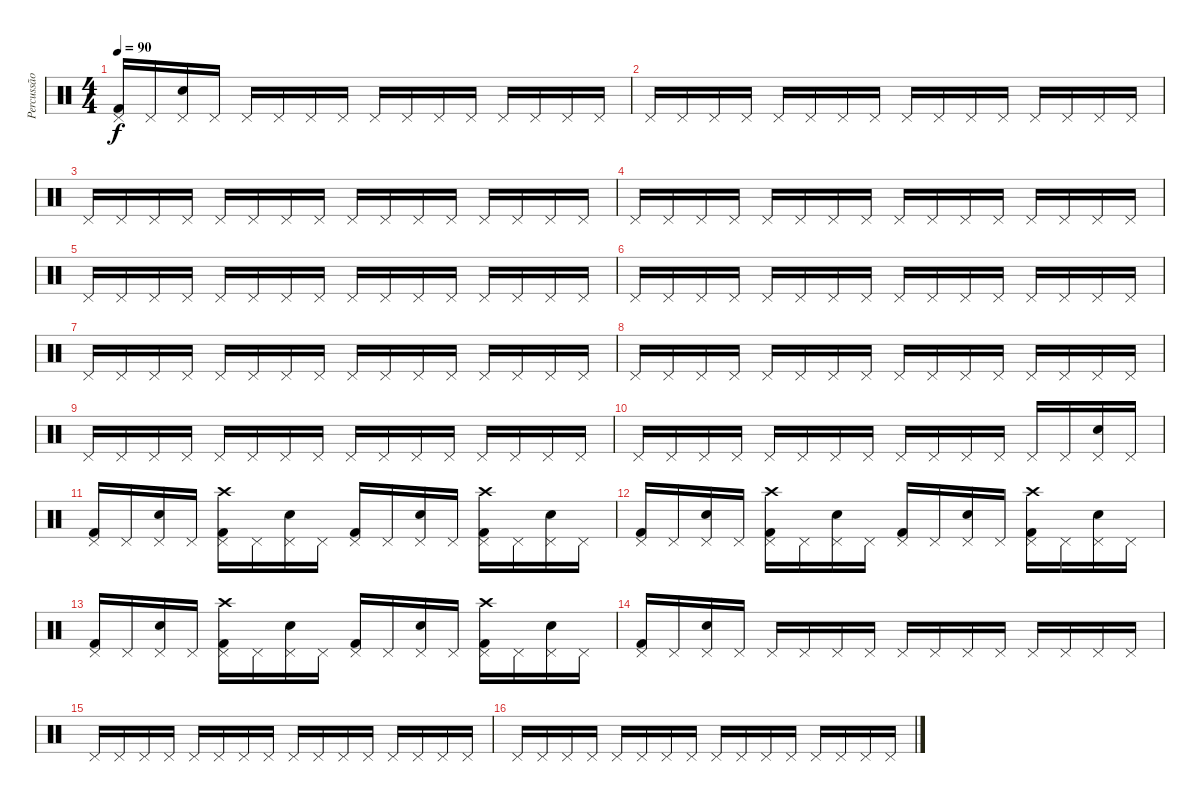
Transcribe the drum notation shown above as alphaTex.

\track ("Percussão" "Percussão") {instrument percussion}
\staff {score}
\articulation defaults
\ts (4 4)
\tempo 90
\clef neutral
\ks c
("Pedal Hi-Hat (hit)" "Kick (hit) 2").16{dy f} "Pedal Hi-Hat (hit)".16 ("Pedal Hi-Hat (hit)" "Electric Snare (hit)").16 "Pedal Hi-Hat (hit)".16 "Pedal Hi-Hat (hit)".16 "Pedal Hi-Hat (hit)".16 "Pedal Hi-Hat (hit)".16 "Pedal Hi-Hat (hit)".16 "Pedal Hi-Hat (hit)".16 "Pedal Hi-Hat (hit)".16 "Pedal Hi-Hat (hit)".16 "Pedal Hi-Hat (hit)".16 "Pedal Hi-Hat (hit)".16 "Pedal Hi-Hat (hit)".16 "Pedal Hi-Hat (hit)".16 "Pedal Hi-Hat (hit)".16 |
"Pedal Hi-Hat (hit)".16 "Pedal Hi-Hat (hit)".16 "Pedal Hi-Hat (hit)".16 "Pedal Hi-Hat (hit)".16 "Pedal Hi-Hat (hit)".16 "Pedal Hi-Hat (hit)".16 "Pedal Hi-Hat (hit)".16 "Pedal Hi-Hat (hit)".16 "Pedal Hi-Hat (hit)".16 "Pedal Hi-Hat (hit)".16 "Pedal Hi-Hat (hit)".16 "Pedal Hi-Hat (hit)".16 "Pedal Hi-Hat (hit)".16 "Pedal Hi-Hat (hit)".16 "Pedal Hi-Hat (hit)".16 "Pedal Hi-Hat (hit)".16 |
"Pedal Hi-Hat (hit)".16 "Pedal Hi-Hat (hit)".16 "Pedal Hi-Hat (hit)".16 "Pedal Hi-Hat (hit)".16 "Pedal Hi-Hat (hit)".16 "Pedal Hi-Hat (hit)".16 "Pedal Hi-Hat (hit)".16 "Pedal Hi-Hat (hit)".16 "Pedal Hi-Hat (hit)".16 "Pedal Hi-Hat (hit)".16 "Pedal Hi-Hat (hit)".16 "Pedal Hi-Hat (hit)".16 "Pedal Hi-Hat (hit)".16 "Pedal Hi-Hat (hit)".16 "Pedal Hi-Hat (hit)".16 "Pedal Hi-Hat (hit)".16 |
"Pedal Hi-Hat (hit)".16 "Pedal Hi-Hat (hit)".16 "Pedal Hi-Hat (hit)".16 "Pedal Hi-Hat (hit)".16 "Pedal Hi-Hat (hit)".16 "Pedal Hi-Hat (hit)".16 "Pedal Hi-Hat (hit)".16 "Pedal Hi-Hat (hit)".16 "Pedal Hi-Hat (hit)".16 "Pedal Hi-Hat (hit)".16 "Pedal Hi-Hat (hit)".16 "Pedal Hi-Hat (hit)".16 "Pedal Hi-Hat (hit)".16 "Pedal Hi-Hat (hit)".16 "Pedal Hi-Hat (hit)".16 "Pedal Hi-Hat (hit)".16 |
"Pedal Hi-Hat (hit)".16 "Pedal Hi-Hat (hit)".16 "Pedal Hi-Hat (hit)".16 "Pedal Hi-Hat (hit)".16 "Pedal Hi-Hat (hit)".16 "Pedal Hi-Hat (hit)".16 "Pedal Hi-Hat (hit)".16 "Pedal Hi-Hat (hit)".16 "Pedal Hi-Hat (hit)".16 "Pedal Hi-Hat (hit)".16 "Pedal Hi-Hat (hit)".16 "Pedal Hi-Hat (hit)".16 "Pedal Hi-Hat (hit)".16 "Pedal Hi-Hat (hit)".16 "Pedal Hi-Hat (hit)".16 "Pedal Hi-Hat (hit)".16 |
"Pedal Hi-Hat (hit)".16 "Pedal Hi-Hat (hit)".16 "Pedal Hi-Hat (hit)".16 "Pedal Hi-Hat (hit)".16 "Pedal Hi-Hat (hit)".16 "Pedal Hi-Hat (hit)".16 "Pedal Hi-Hat (hit)".16 "Pedal Hi-Hat (hit)".16 "Pedal Hi-Hat (hit)".16 "Pedal Hi-Hat (hit)".16 "Pedal Hi-Hat (hit)".16 "Pedal Hi-Hat (hit)".16 "Pedal Hi-Hat (hit)".16 "Pedal Hi-Hat (hit)".16 "Pedal Hi-Hat (hit)".16 "Pedal Hi-Hat (hit)".16 |
"Pedal Hi-Hat (hit)".16 "Pedal Hi-Hat (hit)".16 "Pedal Hi-Hat (hit)".16 "Pedal Hi-Hat (hit)".16 "Pedal Hi-Hat (hit)".16 "Pedal Hi-Hat (hit)".16 "Pedal Hi-Hat (hit)".16 "Pedal Hi-Hat (hit)".16 "Pedal Hi-Hat (hit)".16 "Pedal Hi-Hat (hit)".16 "Pedal Hi-Hat (hit)".16 "Pedal Hi-Hat (hit)".16 "Pedal Hi-Hat (hit)".16 "Pedal Hi-Hat (hit)".16 "Pedal Hi-Hat (hit)".16 "Pedal Hi-Hat (hit)".16 |
"Pedal Hi-Hat (hit)".16 "Pedal Hi-Hat (hit)".16 "Pedal Hi-Hat (hit)".16 "Pedal Hi-Hat (hit)".16 "Pedal Hi-Hat (hit)".16 "Pedal Hi-Hat (hit)".16 "Pedal Hi-Hat (hit)".16 "Pedal Hi-Hat (hit)".16 "Pedal Hi-Hat (hit)".16 "Pedal Hi-Hat (hit)".16 "Pedal Hi-Hat (hit)".16 "Pedal Hi-Hat (hit)".16 "Pedal Hi-Hat (hit)".16 "Pedal Hi-Hat (hit)".16 "Pedal Hi-Hat (hit)".16 "Pedal Hi-Hat (hit)".16 |
"Pedal Hi-Hat (hit)".16 "Pedal Hi-Hat (hit)".16 "Pedal Hi-Hat (hit)".16 "Pedal Hi-Hat (hit)".16 "Pedal Hi-Hat (hit)".16 "Pedal Hi-Hat (hit)".16 "Pedal Hi-Hat (hit)".16 "Pedal Hi-Hat (hit)".16 "Pedal Hi-Hat (hit)".16 "Pedal Hi-Hat (hit)".16 "Pedal Hi-Hat (hit)".16 "Pedal Hi-Hat (hit)".16 "Pedal Hi-Hat (hit)".16 "Pedal Hi-Hat (hit)".16 "Pedal Hi-Hat (hit)".16 "Pedal Hi-Hat (hit)".16 |
"Pedal Hi-Hat (hit)".16 "Pedal Hi-Hat (hit)".16 "Pedal Hi-Hat (hit)".16 "Pedal Hi-Hat (hit)".16 "Pedal Hi-Hat (hit)".16 "Pedal Hi-Hat (hit)".16 "Pedal Hi-Hat (hit)".16 "Pedal Hi-Hat (hit)".16 "Pedal Hi-Hat (hit)".16 "Pedal Hi-Hat (hit)".16 "Pedal Hi-Hat (hit)".16 "Pedal Hi-Hat (hit)".16 "Pedal Hi-Hat (hit)".16 "Pedal Hi-Hat (hit)".16 ("Pedal Hi-Hat (hit)" "Electric Snare (hit)").16 "Pedal Hi-Hat (hit)".16 |
("Pedal Hi-Hat (hit)" "Kick (hit) 2").16 "Pedal Hi-Hat (hit)".16 ("Pedal Hi-Hat (hit)" "Electric Snare (hit)").16 "Pedal Hi-Hat (hit)".16 ("Crash high (hit)" "Pedal Hi-Hat (hit)" "Kick (hit) 2").16 "Pedal Hi-Hat (hit)".16 ("Pedal Hi-Hat (hit)" "Electric Snare (hit)").16 "Pedal Hi-Hat (hit)".16 ("Pedal Hi-Hat (hit)" "Kick (hit) 2").16 "Pedal Hi-Hat (hit)".16 ("Pedal Hi-Hat (hit)" "Electric Snare (hit)").16 "Pedal Hi-Hat (hit)".16 ("Crash high (hit)" "Pedal Hi-Hat (hit)" "Kick (hit) 2").16 "Pedal Hi-Hat (hit)".16 ("Pedal Hi-Hat (hit)" "Electric Snare (hit)").16 "Pedal Hi-Hat (hit)".16 |
("Pedal Hi-Hat (hit)" "Kick (hit) 2").16 "Pedal Hi-Hat (hit)".16 ("Pedal Hi-Hat (hit)" "Electric Snare (hit)").16 "Pedal Hi-Hat (hit)".16 ("Crash high (hit)" "Pedal Hi-Hat (hit)" "Kick (hit) 2").16 "Pedal Hi-Hat (hit)".16 ("Pedal Hi-Hat (hit)" "Electric Snare (hit)").16 "Pedal Hi-Hat (hit)".16 ("Pedal Hi-Hat (hit)" "Kick (hit) 2").16 "Pedal Hi-Hat (hit)".16 ("Pedal Hi-Hat (hit)" "Electric Snare (hit)").16 "Pedal Hi-Hat (hit)".16 ("Crash high (hit)" "Pedal Hi-Hat (hit)" "Kick (hit) 2").16 "Pedal Hi-Hat (hit)".16 ("Pedal Hi-Hat (hit)" "Electric Snare (hit)").16 "Pedal Hi-Hat (hit)".16 |
("Pedal Hi-Hat (hit)" "Kick (hit) 2").16 "Pedal Hi-Hat (hit)".16 ("Pedal Hi-Hat (hit)" "Electric Snare (hit)").16 "Pedal Hi-Hat (hit)".16 ("Crash high (hit)" "Pedal Hi-Hat (hit)" "Kick (hit) 2").16 "Pedal Hi-Hat (hit)".16 ("Pedal Hi-Hat (hit)" "Electric Snare (hit)").16 "Pedal Hi-Hat (hit)".16 ("Pedal Hi-Hat (hit)" "Kick (hit) 2").16 "Pedal Hi-Hat (hit)".16 ("Pedal Hi-Hat (hit)" "Electric Snare (hit)").16 "Pedal Hi-Hat (hit)".16 ("Crash high (hit)" "Pedal Hi-Hat (hit)" "Kick (hit) 2").16 "Pedal Hi-Hat (hit)".16 ("Pedal Hi-Hat (hit)" "Electric Snare (hit)").16 "Pedal Hi-Hat (hit)".16 |
("Pedal Hi-Hat (hit)" "Kick (hit) 2").16 "Pedal Hi-Hat (hit)".16 ("Pedal Hi-Hat (hit)" "Electric Snare (hit)").16 "Pedal Hi-Hat (hit)".16 "Pedal Hi-Hat (hit)".16 "Pedal Hi-Hat (hit)".16 "Pedal Hi-Hat (hit)".16 "Pedal Hi-Hat (hit)".16 "Pedal Hi-Hat (hit)".16 "Pedal Hi-Hat (hit)".16 "Pedal Hi-Hat (hit)".16 "Pedal Hi-Hat (hit)".16 "Pedal Hi-Hat (hit)".16 "Pedal Hi-Hat (hit)".16 "Pedal Hi-Hat (hit)".16 "Pedal Hi-Hat (hit)".16 |
"Pedal Hi-Hat (hit)".16 "Pedal Hi-Hat (hit)".16 "Pedal Hi-Hat (hit)".16 "Pedal Hi-Hat (hit)".16 "Pedal Hi-Hat (hit)".16 "Pedal Hi-Hat (hit)".16 "Pedal Hi-Hat (hit)".16 "Pedal Hi-Hat (hit)".16 "Pedal Hi-Hat (hit)".16 "Pedal Hi-Hat (hit)".16 "Pedal Hi-Hat (hit)".16 "Pedal Hi-Hat (hit)".16 "Pedal Hi-Hat (hit)".16 "Pedal Hi-Hat (hit)".16 "Pedal Hi-Hat (hit)".16 "Pedal Hi-Hat (hit)".16 |
"Pedal Hi-Hat (hit)".16 "Pedal Hi-Hat (hit)".16 "Pedal Hi-Hat (hit)".16 "Pedal Hi-Hat (hit)".16 "Pedal Hi-Hat (hit)".16 "Pedal Hi-Hat (hit)".16 "Pedal Hi-Hat (hit)".16 "Pedal Hi-Hat (hit)".16 "Pedal Hi-Hat (hit)".16 "Pedal Hi-Hat (hit)".16 "Pedal Hi-Hat (hit)".16 "Pedal Hi-Hat (hit)".16 "Pedal Hi-Hat (hit)".16 "Pedal Hi-Hat (hit)".16 "Pedal Hi-Hat (hit)".16 "Pedal Hi-Hat (hit)".16
